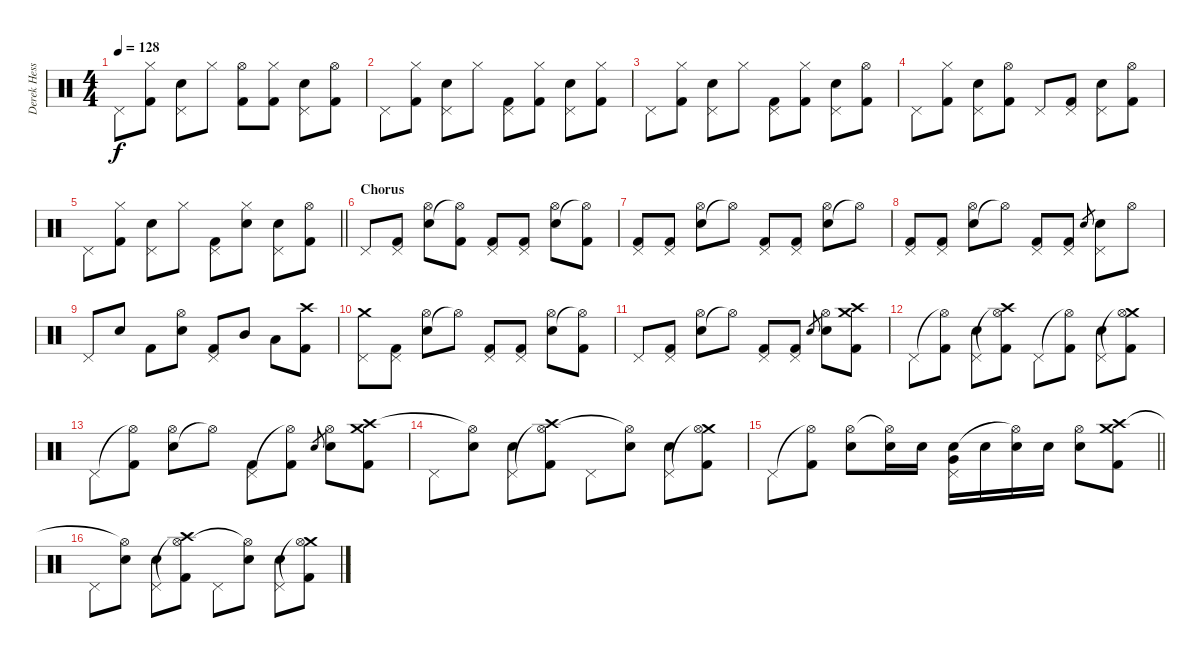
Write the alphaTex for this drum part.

\track ("Derek Hess (Drums and Percussion)" "Derek Hess") {instrument percussion}
\staff {score}
\articulation defaults
\ts (4 4)
\tempo 128
\clef neutral
\ks c "Pedal Hi-Hat (hit)".8{dy f}
("Hi-Hat (closed)" "Kick (hit) 2").8 ("Snare (hit) 2" "Pedal Hi-Hat (hit)").8 "Hi-Hat (closed)".8 ("Hi-Hat (open)" "Kick (hit) 2").8 ("Hi-Hat (closed)" "Kick (hit) 2").8 ("Snare (hit) 2" "Pedal Hi-Hat (hit)").8 ("Hi-Hat (open)" "Kick (hit) 2").8 |
"Pedal Hi-Hat (hit)".8 ("Hi-Hat (closed)" "Kick (hit) 2").8 ("Snare (hit) 2" "Pedal Hi-Hat (hit)").8 "Hi-Hat (closed)".8 ("Pedal Hi-Hat (hit)" "Kick (hit) 2").8 ("Hi-Hat (closed)" "Kick (hit) 2").8 ("Snare (hit) 2" "Pedal Hi-Hat (hit)").8 ("Hi-Hat (closed)" "Kick (hit) 2").8 |
"Pedal Hi-Hat (hit)".8 ("Hi-Hat (closed)" "Kick (hit) 2").8 ("Snare (hit) 2" "Pedal Hi-Hat (hit)").8 "Hi-Hat (closed)".8 ("Pedal Hi-Hat (hit)" "Kick (hit) 2").8 ("Hi-Hat (closed)" "Kick (hit) 2").8 ("Snare (hit) 2" "Pedal Hi-Hat (hit)").8 ("Hi-Hat (open)" "Kick (hit) 2").8 |
"Pedal Hi-Hat (hit)".8 ("Hi-Hat (closed)" "Kick (hit) 2").8 ("Snare (hit) 2" "Pedal Hi-Hat (hit)").8 ("Hi-Hat (open)" "Kick (hit) 2").8 "Pedal Hi-Hat (hit)".8 ("Pedal Hi-Hat (hit)" "Kick (hit) 2").8 ("Snare (hit) 2" "Pedal Hi-Hat (hit)").8 ("Hi-Hat (open)" "Kick (hit) 2").8 |
\barLineRight lightlight "Pedal Hi-Hat (hit)".8
("Hi-Hat (closed)" "Kick (hit) 2").8 ("Snare (hit) 2" "Pedal Hi-Hat (hit)").8 "Hi-Hat (closed)".8 ("Pedal Hi-Hat (hit)" "Kick (hit) 2").8 ("Snare (hit) 2" "Hi-Hat (closed)").8 ("Snare (hit) 2" "Pedal Hi-Hat (hit)").8 ("Hi-Hat (open)" "Kick (hit) 2").8 |
\section ("" "Chorus")
"Pedal Hi-Hat (hit)".8 ("Pedal Hi-Hat (hit)" "Kick (hit) 2").8 ("Snare (hit) 2" "Hi-Hat (open)").8 ("Hi-Hat (open)"{t} "Kick (hit) 2").8 ("Pedal Hi-Hat (hit)" "Kick (hit) 2").8 ("Pedal Hi-Hat (hit)" "Kick (hit) 2").8 ("Snare (hit) 2" "Hi-Hat (open)").8 ("Hi-Hat (open)"{t} "Kick (hit) 2").8 |
("Pedal Hi-Hat (hit)" "Kick (hit) 2").8 ("Pedal Hi-Hat (hit)" "Kick (hit) 2").8 ("Snare (hit) 2" "Hi-Hat (open)").8 "Hi-Hat (open)"{t}.8 ("Pedal Hi-Hat (hit)" "Kick (hit) 2").8 ("Pedal Hi-Hat (hit)" "Kick (hit) 2").8 ("Snare (hit) 2" "Hi-Hat (open)").8 "Hi-Hat (open)"{t}.8 |
("Pedal Hi-Hat (hit)" "Kick (hit) 2").8 ("Pedal Hi-Hat (hit)" "Kick (hit) 2").8 ("Snare (hit) 2" "Hi-Hat (open)").8 "Hi-Hat (open)"{t}.8 ("Pedal Hi-Hat (hit)" "Kick (hit) 2").8 ("Pedal Hi-Hat (hit)" "Kick (hit) 2").8 "Snare (hit) 2".8{gr} ("Snare (hit) 2" "Pedal Hi-Hat (hit)").8 "Hi-Hat (open)".8 |
"Pedal Hi-Hat (hit)".8 "Snare (hit) 2".8 "Kick (hit) 2".8 ("Snare (hit) 2" "Hi-Hat (open)").8 ("Pedal Hi-Hat (hit)" "Kick (hit) 2").8 "Mid Tom (hit)".8 "Low Tom (hit)".8 ("Crash high (hit)" "Kick (hit) 2").8 |
("Crash medium (hit)" "Pedal Hi-Hat (hit)").8 ("Pedal Hi-Hat (hit)" "Kick (hit) 2").8 ("Snare (hit) 2" "Hi-Hat (open)").8 "Hi-Hat (open)"{t}.8 ("Pedal Hi-Hat (hit)" "Kick (hit) 2").8 ("Pedal Hi-Hat (hit)" "Kick (hit) 2").8 ("Snare (hit) 2" "Hi-Hat (open)").8 ("Hi-Hat (open)"{t} "Kick (hit) 2").8 |
"Pedal Hi-Hat (hit)".8 ("Pedal Hi-Hat (hit)" "Kick (hit) 2").8 ("Snare (hit) 2" "Hi-Hat (open)").8 "Hi-Hat (open)"{t}.8 ("Pedal Hi-Hat (hit)" "Kick (hit) 2").8 ("Pedal Hi-Hat (hit)" "Kick (hit) 2").8 "Snare (hit) 2".8{gr} ("Snare (hit) 2" "Hi-Hat (open)").8 ("Crash medium (hit)" "Crash high (hit)" "Kick (hit) 2").8 |
"Pedal Hi-Hat (hit)".8 ("Hi-Hat (open)"{t} "Kick (hit) 2").8 ("Snare (hit) 2" "Pedal Hi-Hat (hit)").8 ("Crash high (hit)" "Hi-Hat (open)"{t} "Kick (hit) 2").8 "Pedal Hi-Hat (hit)".8 ("Hi-Hat (open)"{t} "Kick (hit) 2").8 ("Snare (hit) 2" "Pedal Hi-Hat (hit)").8 ("Crash medium (hit)" "Hi-Hat (open)"{t} "Kick (hit) 2").8 |
"Pedal Hi-Hat (hit)".8 ("Hi-Hat (open)"{t} "Kick (hit) 2").8 ("Snare (hit) 2" "Hi-Hat (open)").8 "Hi-Hat (open)"{t}.8 ("Pedal Hi-Hat (hit)" "Kick (hit) 2").8 ("Hi-Hat (open)"{t} "Kick (hit) 2").8 "Snare (hit) 2".8{gr} ("Snare (hit) 2" "Hi-Hat (open)").8 ("Crash medium (hit)" "Crash high (hit)" "Kick (hit) 2").8 |
"Pedal Hi-Hat (hit)".8 ("Snare (hit) 2" "Hi-Hat (open)"{t}).8 ("Snare (hit) 2" "Pedal Hi-Hat (hit)").8 ("Crash high (hit)" "Hi-Hat (open)"{t} "Kick (hit) 2").8 "Pedal Hi-Hat (hit)".8 ("Snare (hit) 2" "Hi-Hat (open)"{t}).8 ("Snare (hit) 2" "Pedal Hi-Hat (hit)").8 ("Crash medium (hit)" "Hi-Hat (open)"{t} "Kick (hit) 2").8 |
\barLineRight lightlight "Pedal Hi-Hat (hit)".8
("Hi-Hat (open)"{t} "Kick (hit) 2").8 ("Snare (hit) 2" "Hi-Hat (open)").8 ("Snare (hit) 2" "Hi-Hat (open)"{t}).16 "Snare (hit) 2".16 ("Very Low Tom (hit)" "Snare (hit) 2" "Pedal Hi-Hat (hit)").16 "Snare (hit) 2".16 ("Snare (hit) 2" "Hi-Hat (open)"{t}).16 "Snare (hit) 2".16 ("Snare (hit) 2" "Hi-Hat (open)").8 ("Crash medium (hit)" "Crash high (hit)" "Kick (hit) 2").8 |
"Pedal Hi-Hat (hit)".8 ("Snare (hit) 2" "Hi-Hat (open)"{t}).8 ("Snare (hit) 2" "Pedal Hi-Hat (hit)").8 ("Crash high (hit)" "Hi-Hat (open)"{t} "Kick (hit) 2").8 "Pedal Hi-Hat (hit)".8 ("Snare (hit) 2" "Hi-Hat (open)"{t}).8 ("Snare (hit) 2" "Pedal Hi-Hat (hit)").8 ("Crash medium (hit)" "Hi-Hat (open)"{t} "Kick (hit) 2").8
